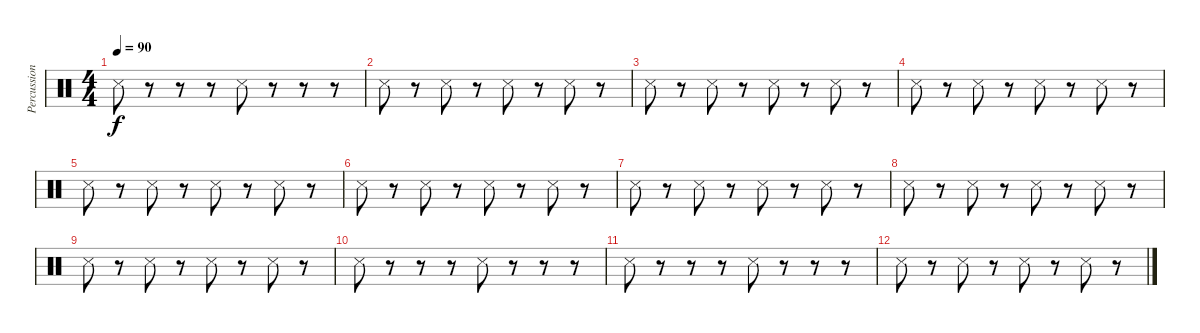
\track ("Percussions" "Percussion") {instrument percussion}
\staff {score}
\articulation defaults
\ts (4 4)
\tempo 90
\clef neutral
\ks c "Metronome (hit)".8{dy f}
r.8 r.8 r.8 "Metronome (hit)".8 r.8 r.8 r.8 |
"Metronome (hit)".8 r.8 "Metronome (hit)".8 r.8 "Metronome (hit)".8 r.8 "Metronome (hit)".8 r.8 |
"Metronome (hit)".8 r.8 "Metronome (hit)".8 r.8 "Metronome (hit)".8 r.8 "Metronome (hit)".8 r.8 |
"Metronome (hit)".8 r.8 "Metronome (hit)".8 r.8 "Metronome (hit)".8 r.8 "Metronome (hit)".8 r.8 |
"Metronome (hit)".8 r.8 "Metronome (hit)".8 r.8 "Metronome (hit)".8 r.8 "Metronome (hit)".8 r.8 |
"Metronome (hit)".8 r.8 "Metronome (hit)".8 r.8 "Metronome (hit)".8 r.8 "Metronome (hit)".8 r.8 |
"Metronome (hit)".8 r.8 "Metronome (hit)".8 r.8 "Metronome (hit)".8 r.8 "Metronome (hit)".8 r.8 |
"Metronome (hit)".8 r.8 "Metronome (hit)".8 r.8 "Metronome (hit)".8 r.8 "Metronome (hit)".8 r.8 |
"Metronome (hit)".8 r.8 "Metronome (hit)".8 r.8 "Metronome (hit)".8 r.8 "Metronome (hit)".8 r.8 |
"Metronome (hit)".8 r.8 r.8 r.8 "Metronome (hit)".8 r.8 r.8 r.8 |
"Metronome (hit)".8 r.8 r.8 r.8 "Metronome (hit)".8 r.8 r.8 r.8 |
"Metronome (hit)".8 r.8 "Metronome (hit)".8 r.8 "Metronome (hit)".8 r.8 "Metronome (hit)".8 r.8
